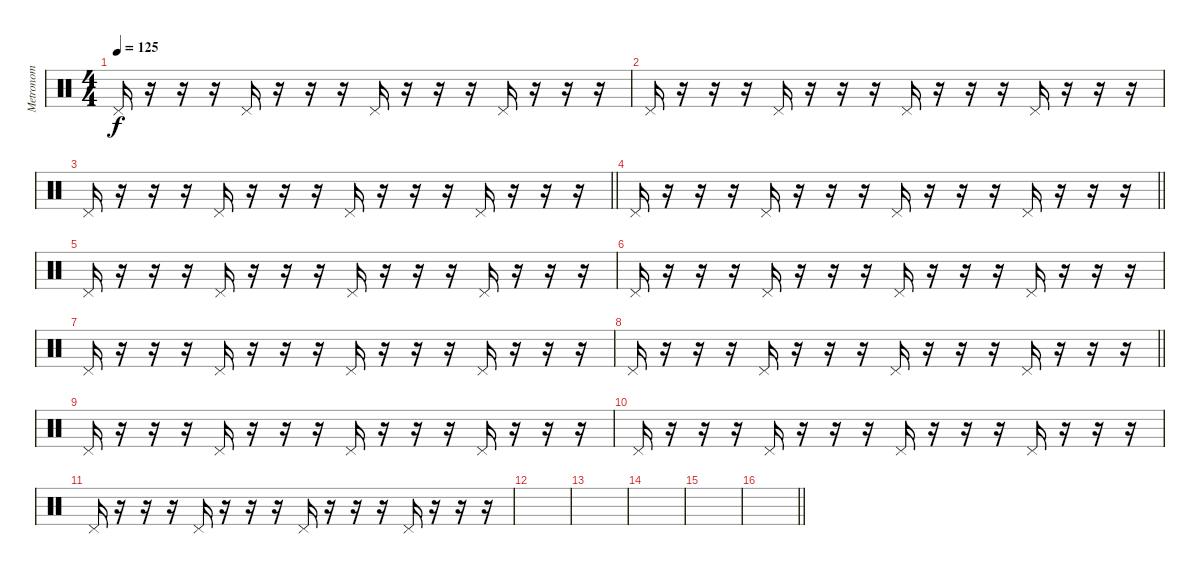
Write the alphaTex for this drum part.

\track ("Metronom" "Metronom") {instrument percussion}
\staff {score}
\articulation defaults
\ts (4 4)
\tempo 125
\clef neutral
\ks c "Pedal Hi-Hat (hit)".16{dy f}
r.16 r.16 r.16 "Pedal Hi-Hat (hit)".16 r.16 r.16 r.16 "Pedal Hi-Hat (hit)".16 r.16 r.16 r.16 "Pedal Hi-Hat (hit)".16 r.16 r.16 r.16 |
"Pedal Hi-Hat (hit)".16 r.16 r.16 r.16 "Pedal Hi-Hat (hit)".16 r.16 r.16 r.16 "Pedal Hi-Hat (hit)".16 r.16 r.16 r.16 "Pedal Hi-Hat (hit)".16 r.16 r.16 r.16 |
\barLineRight lightlight "Pedal Hi-Hat (hit)".16
r.16 r.16 r.16 "Pedal Hi-Hat (hit)".16 r.16 r.16 r.16 "Pedal Hi-Hat (hit)".16 r.16 r.16 r.16 "Pedal Hi-Hat (hit)".16 r.16 r.16 r.16 |
\barLineRight lightlight "Pedal Hi-Hat (hit)".16
r.16 r.16 r.16 "Pedal Hi-Hat (hit)".16 r.16 r.16 r.16 "Pedal Hi-Hat (hit)".16 r.16 r.16 r.16 "Pedal Hi-Hat (hit)".16 r.16 r.16 r.16 |
\section ("" "")
"Pedal Hi-Hat (hit)".16 r.16 r.16 r.16 "Pedal Hi-Hat (hit)".16 r.16 r.16 r.16 "Pedal Hi-Hat (hit)".16 r.16 r.16 r.16 "Pedal Hi-Hat (hit)".16 r.16 r.16 r.16 |
"Pedal Hi-Hat (hit)".16 r.16 r.16 r.16 "Pedal Hi-Hat (hit)".16 r.16 r.16 r.16 "Pedal Hi-Hat (hit)".16 r.16 r.16 r.16 "Pedal Hi-Hat (hit)".16 r.16 r.16 r.16 |
"Pedal Hi-Hat (hit)".16 r.16 r.16 r.16 "Pedal Hi-Hat (hit)".16 r.16 r.16 r.16 "Pedal Hi-Hat (hit)".16 r.16 r.16 r.16 "Pedal Hi-Hat (hit)".16 r.16 r.16 r.16 |
\barLineRight lightlight "Pedal Hi-Hat (hit)".16
r.16 r.16 r.16 "Pedal Hi-Hat (hit)".16 r.16 r.16 r.16 "Pedal Hi-Hat (hit)".16 r.16 r.16 r.16 "Pedal Hi-Hat (hit)".16 r.16 r.16 r.16 |
\section ("" "")
"Pedal Hi-Hat (hit)".16 r.16 r.16 r.16 "Pedal Hi-Hat (hit)".16 r.16 r.16 r.16 "Pedal Hi-Hat (hit)".16 r.16 r.16 r.16 "Pedal Hi-Hat (hit)".16 r.16 r.16 r.16 |
"Pedal Hi-Hat (hit)".16 r.16 r.16 r.16 "Pedal Hi-Hat (hit)".16 r.16 r.16 r.16 "Pedal Hi-Hat (hit)".16 r.16 r.16 r.16 "Pedal Hi-Hat (hit)".16 r.16 r.16 r.16 |
"Pedal Hi-Hat (hit)".16 r.16 r.16 r.16 "Pedal Hi-Hat (hit)".16 r.16 r.16 r.16 "Pedal Hi-Hat (hit)".16 r.16 r.16 r.16 "Pedal Hi-Hat (hit)".16 r.16 r.16 r.16 |
|
|
|
|
\barLineRight lightlight
